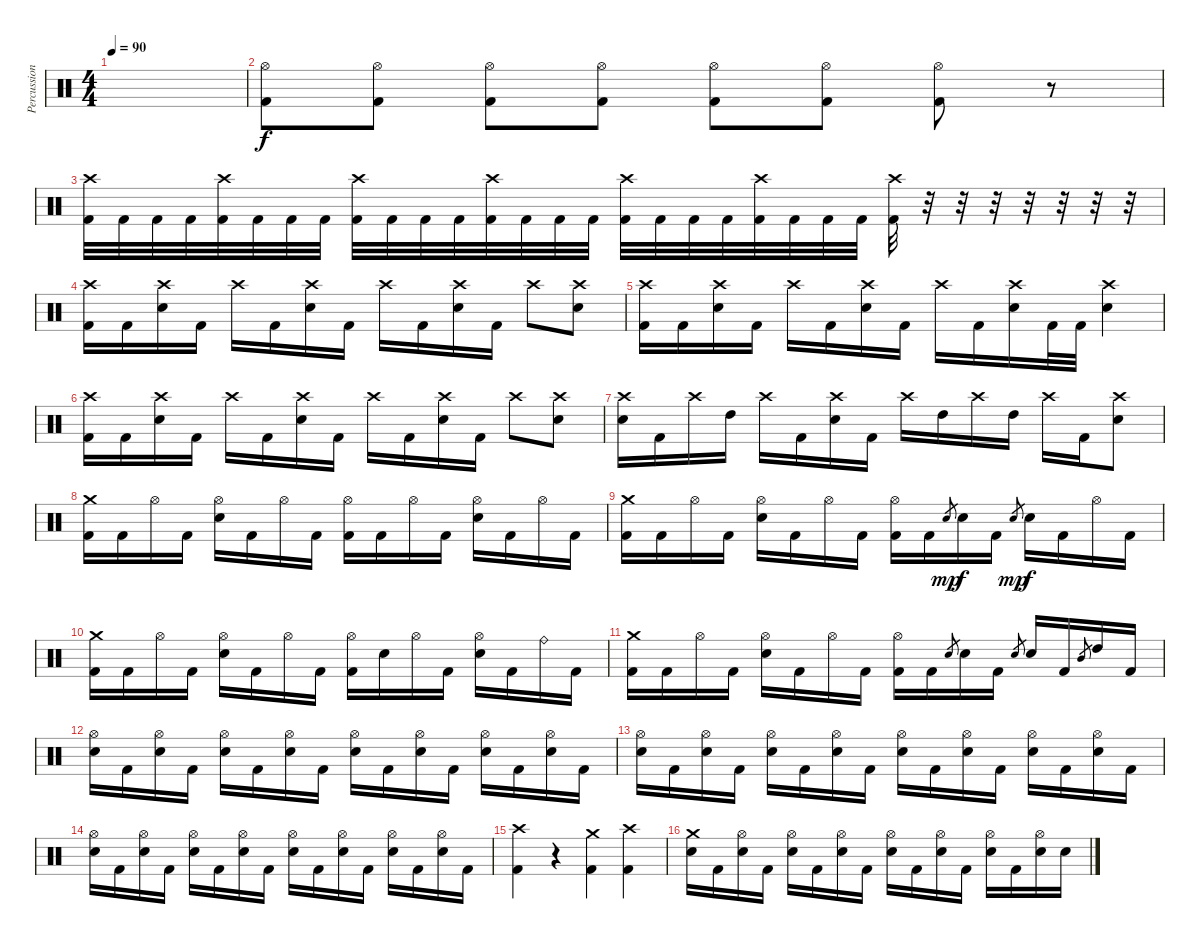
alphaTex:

\track ("Percussion" "Percussion") {instrument percussion}
\staff {score}
\articulation defaults
\ts (4 4)
\tempo 90
\clef neutral
\ks c
|
("Hi-Hat (open)" "Kick (hit) 2").8 ("Hi-Hat (open)" "Kick (hit) 2").8 ("Hi-Hat (open)" "Kick (hit) 2").8 ("Hi-Hat (open)" "Kick (hit) 2").8 ("Hi-Hat (open)" "Kick (hit) 2").8 ("Hi-Hat (open)" "Kick (hit) 2").8 ("Hi-Hat (open)" "Kick (hit) 2").8 r.8 |
("Crash high (hit)" "Kick (hit) 2").32 "Kick (hit) 2".32 "Kick (hit) 2".32 "Kick (hit) 2".32 ("Crash high (hit)" "Kick (hit) 2").32 "Kick (hit) 2".32 "Kick (hit) 2".32 "Kick (hit) 2".32 ("Crash high (hit)" "Kick (hit) 2").32 "Kick (hit) 2".32 "Kick (hit) 2".32 "Kick (hit) 2".32 ("Crash high (hit)" "Kick (hit) 2").32 "Kick (hit) 2".32 "Kick (hit) 2".32 "Kick (hit) 2".32 ("Crash high (hit)" "Kick (hit) 2").32 "Kick (hit) 2".32 "Kick (hit) 2".32 "Kick (hit) 2".32 ("Crash high (hit)" "Kick (hit) 2").32 "Kick (hit) 2".32 "Kick (hit) 2".32 "Kick (hit) 2".32 ("Crash high (hit)" "Kick (hit) 2").32 r.32 r.32 r.32 r.32 r.32 r.32 r.32 |
("Crash high (hit)" "Kick (hit) 2").16 "Kick (hit) 2".16 ("Crash high (hit)" "Electric Snare (hit)").16 "Kick (hit) 2".16 "Crash high (hit)".16 "Kick (hit) 2".16 ("Crash high (hit)" "Electric Snare (hit)").16 "Kick (hit) 2".16 "Crash high (hit)".16 "Kick (hit) 2".16 ("Crash high (hit)" "Electric Snare (hit)").16 "Kick (hit) 2".16 "Crash high (hit)".8 ("Crash high (hit)" "Electric Snare (hit)").8 |
("Crash high (hit)" "Kick (hit) 2").16 "Kick (hit) 2".16 ("Crash high (hit)" "Electric Snare (hit)").16 "Kick (hit) 2".16 "Crash high (hit)".16 "Kick (hit) 2".16 ("Crash high (hit)" "Electric Snare (hit)").16 "Kick (hit) 2".16 "Crash high (hit)".16 "Kick (hit) 2".16 ("Crash high (hit)" "Electric Snare (hit)").16 "Kick (hit) 2".32 "Kick (hit) 2".32 ("Crash high (hit)" "Electric Snare (hit)").4 |
("Crash high (hit)" "Kick (hit) 2").16 "Kick (hit) 2".16 ("Crash high (hit)" "Electric Snare (hit)").16 "Kick (hit) 2".16 "Crash high (hit)".16 "Kick (hit) 2".16 ("Crash high (hit)" "Electric Snare (hit)").16 "Kick (hit) 2".16 "Crash high (hit)".16 "Kick (hit) 2".16 ("Crash high (hit)" "Electric Snare (hit)").16 "Kick (hit) 2".16 "Crash high (hit)".8 ("Crash high (hit)" "Electric Snare (hit)").8 |
("Crash high (hit)" "Electric Snare (hit)").16 "Kick (hit) 2".16 "Crash high (hit)".16 "High Tom (hit)".16 "Crash high (hit)".16 "Kick (hit) 2".16 ("Crash high (hit)" "Electric Snare (hit)").16 "Kick (hit) 2".16 "Crash high (hit)".16 "High Tom (hit)".16 "Crash high (hit)".16 "High Tom (hit)".16 "Crash high (hit)".16 "Kick (hit) 2".16 ("Crash high (hit)" "Electric Snare (hit)").8 |
("Crash medium (hit)" "Kick (hit) 2").16 "Kick (hit) 2".16 "Hi-Hat (open)".16 "Kick (hit) 2".16 ("Hi-Hat (open)" "Electric Snare (hit)").16 "Kick (hit) 2".16 "Hi-Hat (open)".16 "Kick (hit) 2".16 ("Hi-Hat (open)" "Kick (hit) 2").16 "Kick (hit) 2".16 "Hi-Hat (open)".16 "Kick (hit) 2".16 ("Hi-Hat (open)" "Electric Snare (hit)").16 "Kick (hit) 2".16 "Hi-Hat (open)".16 "Kick (hit) 2".16 |
("Crash medium (hit)" "Kick (hit) 2").16 "Kick (hit) 2".16 "Hi-Hat (open)".16 "Kick (hit) 2".16 ("Hi-Hat (open)" "Electric Snare (hit)").16 "Kick (hit) 2".16 "Hi-Hat (open)".16 "Kick (hit) 2".16 ("Hi-Hat (open)" "Kick (hit) 2").16 "Kick (hit) 2".16 "Electric Snare (hit)".8{gr dy mp} "Electric Snare (hit)".16{dy f} "Kick (hit) 2".16 "Electric Snare (hit)".8{gr dy mp} "Electric Snare (hit)".16{dy f} "Kick (hit) 2".16 "Hi-Hat (open)".16 "Kick (hit) 2".16 |
("Crash medium (hit)" "Kick (hit) 2").16 "Kick (hit) 2".16 "Hi-Hat (open)".16 "Kick (hit) 2".16 ("Hi-Hat (open)" "Electric Snare (hit)").16 "Kick (hit) 2".16 "Hi-Hat (open)".16 "Kick (hit) 2".16 ("Hi-Hat (open)" "Kick (hit) 2").16 "Electric Snare (hit)".16 "Hi-Hat (open)".16 "Kick (hit) 2".16 ("Hi-Hat (open)" "Electric Snare (hit)").16 "Kick (hit) 2".16 "Ride (bell)".16 "Kick (hit) 2".16 |
("Crash medium (hit)" "Kick (hit) 2").16 "Kick (hit) 2".16 "Hi-Hat (open)".16 "Kick (hit) 2".16 ("Hi-Hat (open)" "Electric Snare (hit)").16 "Kick (hit) 2".16 "Hi-Hat (open)".16 "Kick (hit) 2".16 ("Hi-Hat (open)" "Kick (hit) 2").16 "Kick (hit) 2".16 "Electric Snare (hit)".8{gr} "Electric Snare (hit)".16 "Kick (hit) 2".16 "Electric Snare (hit)".8{gr} "Electric Snare (hit)".16 "Kick (hit) 2".16 "Mid Tom (hit)".8{gr} "High Tom (hit)".16 "Kick (hit) 2".16 |
("Hi-Hat (open)" "Electric Snare (hit)").16{volume 6} "Kick (hit) 2".16 ("Hi-Hat (open)" "Electric Snare (hit)").16 "Kick (hit) 2".16 ("Hi-Hat (open)" "Electric Snare (hit)").16 "Kick (hit) 2".16 ("Hi-Hat (open)" "Electric Snare (hit)").16 "Kick (hit) 2".16 ("Hi-Hat (open)" "Electric Snare (hit)").16 "Kick (hit) 2".16 ("Hi-Hat (open)" "Electric Snare (hit)").16 "Kick (hit) 2".16 ("Hi-Hat (open)" "Electric Snare (hit)").16 "Kick (hit) 2".16 ("Hi-Hat (open)" "Electric Snare (hit)").16 "Kick (hit) 2".16 |
("Hi-Hat (open)" "Electric Snare (hit)").16 "Kick (hit) 2".16 ("Hi-Hat (open)" "Electric Snare (hit)").16 "Kick (hit) 2".16 ("Hi-Hat (open)" "Electric Snare (hit)").16 "Kick (hit) 2".16 ("Hi-Hat (open)" "Electric Snare (hit)").16 "Kick (hit) 2".16 ("Hi-Hat (open)" "Electric Snare (hit)").16 "Kick (hit) 2".16 ("Hi-Hat (open)" "Electric Snare (hit)").16 "Kick (hit) 2".16 ("Hi-Hat (open)" "Electric Snare (hit)").16 "Kick (hit) 2".16 ("Hi-Hat (open)" "Electric Snare (hit)").16 "Kick (hit) 2".16 |
("Hi-Hat (open)" "Electric Snare (hit)").16 "Kick (hit) 2".16 ("Hi-Hat (open)" "Electric Snare (hit)").16 "Kick (hit) 2".16 ("Hi-Hat (open)" "Electric Snare (hit)").16 "Kick (hit) 2".16 ("Hi-Hat (open)" "Electric Snare (hit)").16 "Kick (hit) 2".16 ("Hi-Hat (open)" "Electric Snare (hit)").16 "Kick (hit) 2".16 ("Hi-Hat (open)" "Electric Snare (hit)").16 "Kick (hit) 2".16 ("Hi-Hat (open)" "Electric Snare (hit)").16 "Kick (hit) 2".16 ("Hi-Hat (open)" "Electric Snare (hit)").16 "Kick (hit) 2".16 |
("Crash high (hit)" "Kick (hit) 2").4{volume 13} r.4 ("Crash medium (hit)" "Kick (hit) 2").4 ("Crash high (hit)" "Kick (hit) 2").4{volume 13} |
("Crash medium (hit)" "Electric Snare (hit)").16 "Kick (hit) 2".16 ("Hi-Hat (open)" "Electric Snare (hit)").16 "Kick (hit) 2".16 ("Hi-Hat (open)" "Electric Snare (hit)").16 "Kick (hit) 2".16 ("Hi-Hat (open)" "Electric Snare (hit)").16 "Kick (hit) 2".16 ("Hi-Hat (open)" "Electric Snare (hit)").16 "Kick (hit) 2".16 ("Hi-Hat (open)" "Electric Snare (hit)").16 "Kick (hit) 2".16 ("Hi-Hat (open)" "Electric Snare (hit)").16 "Kick (hit) 2".16 ("Hi-Hat (open)" "Electric Snare (hit)").16 "Electric Snare (hit)".16
